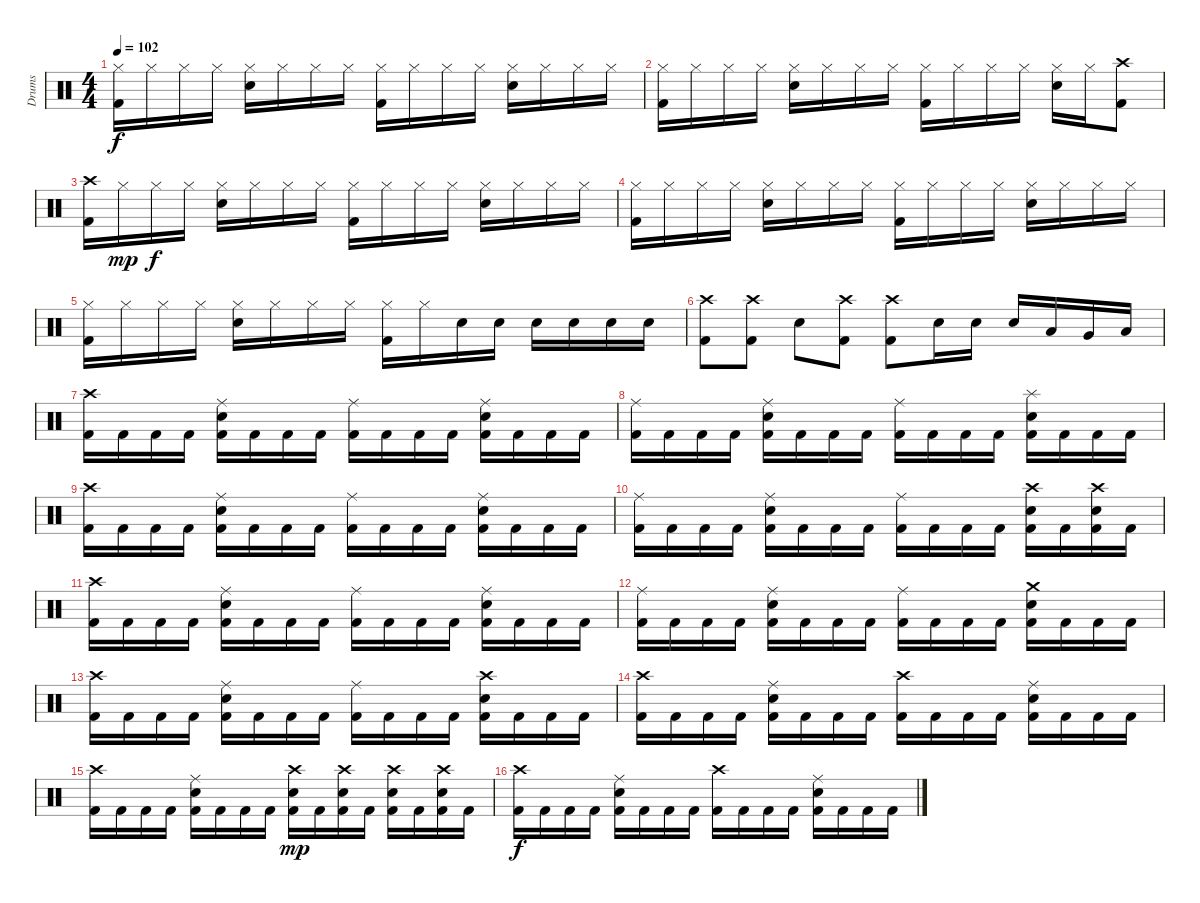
\track ("Drums" "Drums") {instrument percussion}
\staff {score}
\articulation defaults
\ts (4 4)
\tempo 102
\clef neutral
\ks c
("Hi-Hat (closed)" "Kick (hit) 2").16{dy f} "Hi-Hat (closed)".16 "Hi-Hat (closed)".16 "Hi-Hat (closed)".16 ("Hi-Hat (closed)" "Snare (hit) 2").16 "Hi-Hat (closed)".16 "Hi-Hat (closed)".16 "Hi-Hat (closed)".16 ("Hi-Hat (closed)" "Kick (hit) 2").16 "Hi-Hat (closed)".16 "Hi-Hat (closed)".16 "Hi-Hat (closed)".16 ("Hi-Hat (closed)" "Snare (hit) 2").16 "Hi-Hat (closed)".16 "Hi-Hat (closed)".16 "Hi-Hat (closed)".16 |
("Hi-Hat (closed)" "Kick (hit) 2").16 "Hi-Hat (closed)".16 "Hi-Hat (closed)".16 "Hi-Hat (closed)".16 ("Hi-Hat (closed)" "Snare (hit) 2").16 "Hi-Hat (closed)".16 "Hi-Hat (closed)".16 "Hi-Hat (closed)".16 ("Hi-Hat (closed)" "Kick (hit) 2").16 "Hi-Hat (closed)".16 "Hi-Hat (closed)".16 "Hi-Hat (closed)".16 ("Hi-Hat (closed)" "Snare (hit) 2").16 "Hi-Hat (closed)".16 ("Crash high (hit)" "Kick (hit) 2").8 |
("Crash high (hit)" "Kick (hit) 2").16 "Hi-Hat (closed)".16{dy mp} "Hi-Hat (closed)".16{dy f} "Hi-Hat (closed)".16 ("Hi-Hat (closed)" "Snare (hit) 2").16 "Hi-Hat (closed)".16 "Hi-Hat (closed)".16 "Hi-Hat (closed)".16 ("Hi-Hat (closed)" "Kick (hit) 2").16 "Hi-Hat (closed)".16 "Hi-Hat (closed)".16 "Hi-Hat (closed)".16 ("Hi-Hat (closed)" "Snare (hit) 2").16 "Hi-Hat (closed)".16 "Hi-Hat (closed)".16 "Hi-Hat (closed)".16 |
("Hi-Hat (closed)" "Kick (hit) 2").16 "Hi-Hat (closed)".16 "Hi-Hat (closed)".16 "Hi-Hat (closed)".16 ("Hi-Hat (closed)" "Snare (hit) 2").16 "Hi-Hat (closed)".16 "Hi-Hat (closed)".16 "Hi-Hat (closed)".16 ("Hi-Hat (closed)" "Kick (hit) 2").16 "Hi-Hat (closed)".16 "Hi-Hat (closed)".16 "Hi-Hat (closed)".16 ("Hi-Hat (closed)" "Snare (hit) 2").16 "Hi-Hat (closed)".16 "Hi-Hat (closed)".16 "Hi-Hat (closed)".16 |
("Hi-Hat (closed)" "Kick (hit) 2").16 "Hi-Hat (closed)".16 "Hi-Hat (closed)".16 "Hi-Hat (closed)".16 ("Hi-Hat (closed)" "Snare (hit) 2").16 "Hi-Hat (closed)".16 "Hi-Hat (closed)".16 "Hi-Hat (closed)".16 ("Hi-Hat (closed)" "Kick (hit) 2").16 "Hi-Hat (closed)".16 "Snare (hit) 2".16 "Snare (hit) 2".16 "Snare (hit) 2".16 "Snare (hit) 2".16 "Snare (hit) 2".16 "Snare (hit) 2".16 |
("Crash high (hit)" "Kick (hit) 2").8 ("Crash high (hit)" "Kick (hit) 2").8 "Snare (hit) 2".8 ("Crash high (hit)" "Kick (hit) 2").8 ("Crash high (hit)" "Kick (hit) 2").8 "Snare (hit) 2".16 "Snare (hit) 2".16 "Snare (hit) 2".16 "Low Tom (hit)".16 "Very Low Tom (hit)".16 "Low Floor Tom (hit)".16 |
("Crash high (hit)" "Kick (hit) 2").16 "Kick (hit) 2".16 "Kick (hit) 2".16 "Kick (hit) 2".16 ("Ride (middle)" "Snare (hit) 2" "Kick (hit) 2").16 "Kick (hit) 2".16 "Kick (hit) 2".16 "Kick (hit) 2".16 ("Ride (middle)" "Kick (hit) 2").16 "Kick (hit) 2".16 "Kick (hit) 2".16 "Kick (hit) 2".16 ("Ride (middle)" "Snare (hit) 2" "Kick (hit) 2").16 "Kick (hit) 2".16 "Kick (hit) 2".16 "Kick (hit) 2".16 |
("Ride (middle)" "Kick (hit) 2").16 "Kick (hit) 2".16 "Kick (hit) 2".16 "Kick (hit) 2".16 ("Ride (middle)" "Snare (hit) 2" "Kick (hit) 2").16 "Kick (hit) 2".16 "Kick (hit) 2".16 "Kick (hit) 2".16 ("Ride (middle)" "Kick (hit) 2").16 "Kick (hit) 2".16 "Kick (hit) 2".16 "Kick (hit) 2".16 ("Splash (hit)" "Snare (hit) 2" "Kick (hit) 2").16 "Kick (hit) 2".16 "Kick (hit) 2".16 "Kick (hit) 2".16 |
("Crash high (hit)" "Kick (hit) 2").16 "Kick (hit) 2".16 "Kick (hit) 2".16 "Kick (hit) 2".16 ("Ride (middle)" "Snare (hit) 2" "Kick (hit) 2").16 "Kick (hit) 2".16 "Kick (hit) 2".16 "Kick (hit) 2".16 ("Ride (middle)" "Kick (hit) 2").16 "Kick (hit) 2".16 "Kick (hit) 2".16 "Kick (hit) 2".16 ("Ride (middle)" "Snare (hit) 2" "Kick (hit) 2").16 "Kick (hit) 2".16 "Kick (hit) 2".16 "Kick (hit) 2".16 |
("Ride (middle)" "Kick (hit) 2").16 "Kick (hit) 2".16 "Kick (hit) 2".16 "Kick (hit) 2".16 ("Ride (middle)" "Snare (hit) 2" "Kick (hit) 2").16 "Kick (hit) 2".16 "Kick (hit) 2".16 "Kick (hit) 2".16 ("Ride (middle)" "Kick (hit) 2").16 "Kick (hit) 2".16 "Kick (hit) 2".16 "Kick (hit) 2".16 ("Crash high (hit)" "Snare (hit) 2" "Kick (hit) 2").16 "Kick (hit) 2".16 ("Crash high (hit)" "Snare (hit) 2" "Kick (hit) 2").16 "Kick (hit) 2".16 |
("Crash high (hit)" "Kick (hit) 2").16 "Kick (hit) 2".16 "Kick (hit) 2".16 "Kick (hit) 2".16 ("Ride (middle)" "Snare (hit) 2" "Kick (hit) 2").16 "Kick (hit) 2".16 "Kick (hit) 2".16 "Kick (hit) 2".16 ("Ride (middle)" "Kick (hit) 2").16 "Kick (hit) 2".16 "Kick (hit) 2".16 "Kick (hit) 2".16 ("Ride (middle)" "Snare (hit) 2" "Kick (hit) 2").16 "Kick (hit) 2".16 "Kick (hit) 2".16 "Kick (hit) 2".16 |
("Ride (middle)" "Kick (hit) 2").16 "Kick (hit) 2".16 "Kick (hit) 2".16 "Kick (hit) 2".16 ("Ride (middle)" "Snare (hit) 2" "Kick (hit) 2").16 "Kick (hit) 2".16 "Kick (hit) 2".16 "Kick (hit) 2".16 ("Ride (middle)" "Kick (hit) 2").16 "Kick (hit) 2".16 "Kick (hit) 2".16 "Kick (hit) 2".16 ("Crash medium (hit)" "Snare (hit) 2" "Kick (hit) 2").16 "Kick (hit) 2".16 "Kick (hit) 2".16 "Kick (hit) 2".16 |
("Crash high (hit)" "Kick (hit) 2").16 "Kick (hit) 2".16 "Kick (hit) 2".16 "Kick (hit) 2".16 ("Ride (middle)" "Snare (hit) 2" "Kick (hit) 2").16 "Kick (hit) 2".16 "Kick (hit) 2".16 "Kick (hit) 2".16 ("Ride (middle)" "Kick (hit) 2").16 "Kick (hit) 2".16 "Kick (hit) 2".16 "Kick (hit) 2".16 ("Crash high (hit)" "Snare (hit) 2" "Kick (hit) 2").16 "Kick (hit) 2".16 "Kick (hit) 2".16 "Kick (hit) 2".16 |
("Crash high (hit)" "Kick (hit) 2").16 "Kick (hit) 2".16 "Kick (hit) 2".16 "Kick (hit) 2".16 ("Ride (middle)" "Snare (hit) 2" "Kick (hit) 2").16 "Kick (hit) 2".16 "Kick (hit) 2".16 "Kick (hit) 2".16 ("Crash high (hit)" "Kick (hit) 2").16 "Kick (hit) 2".16 "Kick (hit) 2".16 "Kick (hit) 2".16 ("Ride (middle)" "Snare (hit) 2" "Kick (hit) 2").16 "Kick (hit) 2".16 "Kick (hit) 2".16 "Kick (hit) 2".16 |
("Crash high (hit)" "Kick (hit) 2").16 "Kick (hit) 2".16 "Kick (hit) 2".16 "Kick (hit) 2".16 ("Ride (middle)" "Snare (hit) 2" "Kick (hit) 2").16 "Kick (hit) 2".16 "Kick (hit) 2".16 "Kick (hit) 2".16 ("Crash high (hit)" "Snare (hit) 2" "Kick (hit) 2").16{dy mp} "Kick (hit) 2".16 ("Crash high (hit)" "Snare (hit) 2" "Kick (hit) 2").16 "Kick (hit) 2".16 ("Crash high (hit)" "Snare (hit) 2" "Kick (hit) 2").16 "Kick (hit) 2".16 ("Crash high (hit)" "Snare (hit) 2" "Kick (hit) 2").16 "Kick (hit) 2".16 |
("Crash high (hit)" "Kick (hit) 2").16{dy f} "Kick (hit) 2".16 "Kick (hit) 2".16 "Kick (hit) 2".16 ("Ride (middle)" "Snare (hit) 2" "Kick (hit) 2").16 "Kick (hit) 2".16 "Kick (hit) 2".16 "Kick (hit) 2".16 ("Crash high (hit)" "Kick (hit) 2").16 "Kick (hit) 2".16 "Kick (hit) 2".16 "Kick (hit) 2".16 ("Ride (middle)" "Snare (hit) 2" "Kick (hit) 2").16 "Kick (hit) 2".16 "Kick (hit) 2".16 "Kick (hit) 2".16
